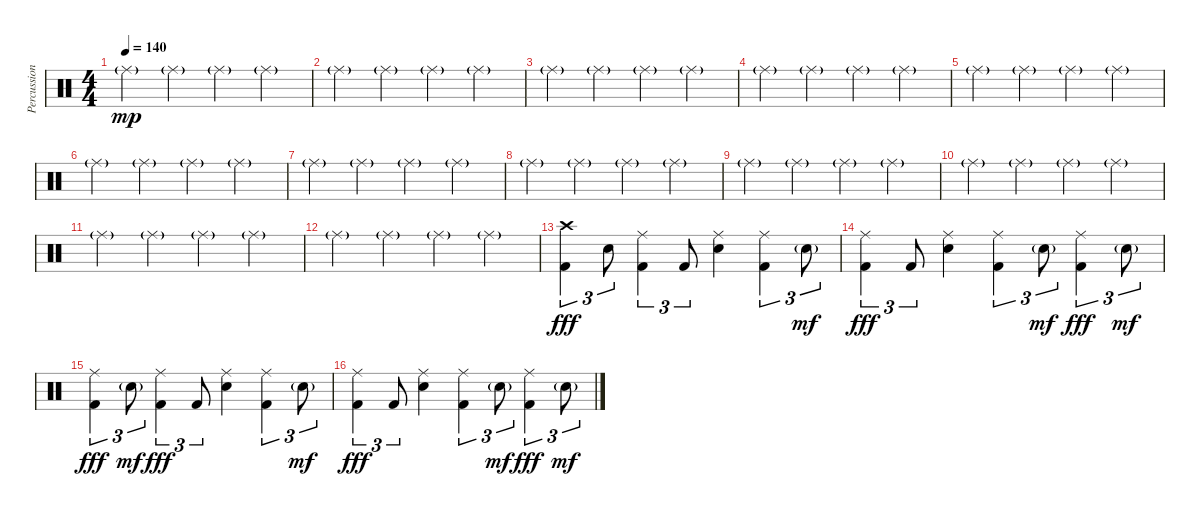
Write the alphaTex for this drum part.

\track ("Percussion" "Percussion") {instrument percussion}
\staff {score}
\articulation defaults
\ts (4 4)
\tempo 140
\clef neutral
\ks c "Ride (middle)"{g}.4{dy mp} "Ride (middle)"{g}.4 "Ride (middle)"{g}.4 "Ride (middle)"{g}.4
|
"Ride (middle)"{g}.4 "Ride (middle)"{g}.4 "Ride (middle)"{g}.4 "Ride (middle)"{g}.4 |
"Ride (middle)"{g}.4 "Ride (middle)"{g}.4 "Ride (middle)"{g}.4 "Ride (middle)"{g}.4 |
"Ride (middle)"{g}.4 "Ride (middle)"{g}.4 "Ride (middle)"{g}.4 "Ride (middle)"{g}.4 |
"Ride (middle)"{g}.4 "Ride (middle)"{g}.4 "Ride (middle)"{g}.4 "Ride (middle)"{g}.4 |
"Ride (middle)"{g}.4 "Ride (middle)"{g}.4 "Ride (middle)"{g}.4 "Ride (middle)"{g}.4 |
"Ride (middle)"{g}.4 "Ride (middle)"{g}.4 "Ride (middle)"{g}.4 "Ride (middle)"{g}.4 |
"Ride (middle)"{g}.4 "Ride (middle)"{g}.4 "Ride (middle)"{g}.4 "Ride (middle)"{g}.4 |
"Ride (middle)"{g}.4 "Ride (middle)"{g}.4 "Ride (middle)"{g}.4 "Ride (middle)"{g}.4 |
"Ride (middle)"{g}.4 "Ride (middle)"{g}.4 "Ride (middle)"{g}.4 "Ride (middle)"{g}.4 |
"Ride (middle)"{g}.4 "Ride (middle)"{g}.4 "Ride (middle)"{g}.4 "Ride (middle)"{g}.4 |
"Ride (middle)"{g}.4 "Ride (middle)"{g}.4 "Ride (middle)"{g}.4 "Ride (middle)"{g}.4 |
("Crash high (hit)" "Kick (hit) 2").4{tu (3 2) dy fff} "Electric Snare (hit)".8{tu (3 2)} ("Ride (middle)" "Kick (hit) 2").4{tu (3 2)} "Kick (hit) 2".8{tu (3 2)} ("Ride (middle)" "Electric Snare (hit)").4 ("Ride (middle)" "Kick (hit) 2").4{tu (3 2)} "Electric Snare (hit)"{g}.8{tu (3 2) dy mf} |
("Ride (middle)" "Kick (hit) 2").4{tu (3 2) dy fff} "Kick (hit) 2".8{tu (3 2)} ("Ride (middle)" "Electric Snare (hit)").4 ("Ride (middle)" "Kick (hit) 2").4{tu (3 2)} "Electric Snare (hit)"{g}.8{tu (3 2) dy mf} ("Ride (middle)" "Kick (hit) 2").4{tu (3 2) dy fff} "Electric Snare (hit)"{g}.8{tu (3 2) dy mf} |
("Ride (middle)" "Kick (hit) 2").4{tu (3 2) dy fff} "Electric Snare (hit)"{g}.8{tu (3 2) dy mf} ("Ride (middle)" "Kick (hit) 2").4{tu (3 2) dy fff} "Kick (hit) 2".8{tu (3 2)} ("Ride (middle)" "Electric Snare (hit)").4 ("Ride (middle)" "Kick (hit) 2").4{tu (3 2)} "Electric Snare (hit)"{g}.8{tu (3 2) dy mf} |
("Ride (middle)" "Kick (hit) 2").4{tu (3 2) dy fff} "Kick (hit) 2".8{tu (3 2)} ("Ride (middle)" "Electric Snare (hit)").4 ("Ride (middle)" "Kick (hit) 2").4{tu (3 2)} "Electric Snare (hit)"{g}.8{tu (3 2) dy mf} ("Ride (middle)" "Kick (hit) 2").4{tu (3 2) dy fff} "Electric Snare (hit)"{g}.8{tu (3 2) dy mf}
